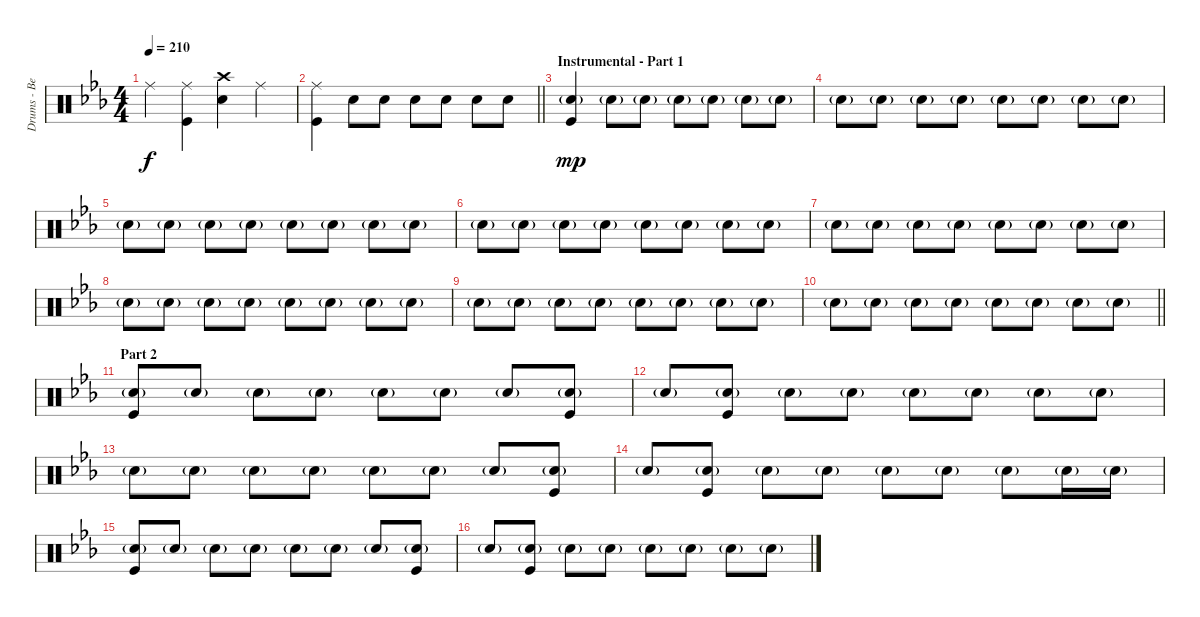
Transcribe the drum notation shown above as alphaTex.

\track ("Drums - Ben Johnston" "Drums - Be") {instrument percussion}
\staff {score}
\articulation defaults
\ts (4 4)
\tempo 210
\clef neutral
\ks cminor "Ride (middle)".4{dy f}
("Ride (middle)" "Kick (hit)").4 ("Crash high (hit)" "Snare (hit) 2").4 "Ride (middle)".4 |
\barLineRight lightlight
("Ride (middle)" "Kick (hit)").4 "Snare (hit) 2".8 "Snare (hit) 2".8 "Snare (hit) 2".8 "Snare (hit) 2".8 "Snare (hit) 2".8 "Snare (hit) 2".8 |
\section ("" "Instrumental - Part 1")
("Snare (hit) 2"{g} "Kick (hit)").4{dy mp volume 16} "Snare (hit) 2"{g}.8 "Snare (hit) 2"{g}.8 "Snare (hit) 2"{g}.8 "Snare (hit) 2"{g}.8 "Snare (hit) 2"{g}.8 "Snare (hit) 2"{g}.8 |
"Snare (hit) 2"{g}.8 "Snare (hit) 2"{g}.8 "Snare (hit) 2"{g}.8 "Snare (hit) 2"{g}.8 "Snare (hit) 2"{g}.8 "Snare (hit) 2"{g}.8 "Snare (hit) 2"{g}.8 "Snare (hit) 2"{g}.8 |
"Snare (hit) 2"{g}.8 "Snare (hit) 2"{g}.8 "Snare (hit) 2"{g}.8 "Snare (hit) 2"{g}.8 "Snare (hit) 2"{g}.8 "Snare (hit) 2"{g}.8 "Snare (hit) 2"{g}.8 "Snare (hit) 2"{g}.8 |
"Snare (hit) 2"{g}.8 "Snare (hit) 2"{g}.8 "Snare (hit) 2"{g}.8 "Snare (hit) 2"{g}.8 "Snare (hit) 2"{g}.8 "Snare (hit) 2"{g}.8 "Snare (hit) 2"{g}.8 "Snare (hit) 2"{g}.8 |
"Snare (hit) 2"{g}.8 "Snare (hit) 2"{g}.8 "Snare (hit) 2"{g}.8 "Snare (hit) 2"{g}.8 "Snare (hit) 2"{g}.8 "Snare (hit) 2"{g}.8 "Snare (hit) 2"{g}.8 "Snare (hit) 2"{g}.8 |
"Snare (hit) 2"{g}.8 "Snare (hit) 2"{g}.8 "Snare (hit) 2"{g}.8 "Snare (hit) 2"{g}.8 "Snare (hit) 2"{g}.8 "Snare (hit) 2"{g}.8 "Snare (hit) 2"{g}.8 "Snare (hit) 2"{g}.8 |
"Snare (hit) 2"{g}.8 "Snare (hit) 2"{g}.8 "Snare (hit) 2"{g}.8 "Snare (hit) 2"{g}.8 "Snare (hit) 2"{g}.8 "Snare (hit) 2"{g}.8 "Snare (hit) 2"{g}.8 "Snare (hit) 2"{g}.8 |
\barLineRight lightlight "Snare (hit) 2"{g}.8 "Snare (hit) 2"{g}.8 "Snare (hit) 2"{g}.8 "Snare (hit) 2"{g}.8 "Snare (hit) 2"{g}.8 "Snare (hit) 2"{g}.8 "Snare (hit) 2"{g}.8 "Snare (hit) 2"{g}.8
|
\section ("" "Part 2")
("Snare (hit) 2"{g} "Kick (hit)").8 "Snare (hit) 2"{g}.8 "Snare (hit) 2"{g}.8 "Snare (hit) 2"{g}.8 "Snare (hit) 2"{g}.8 "Snare (hit) 2"{g}.8 "Snare (hit) 2"{g}.8 ("Snare (hit) 2"{g} "Kick (hit)").8 |
"Snare (hit) 2"{g}.8 ("Snare (hit) 2"{g} "Kick (hit)").8 "Snare (hit) 2"{g}.8 "Snare (hit) 2"{g}.8 "Snare (hit) 2"{g}.8 "Snare (hit) 2"{g}.8 "Snare (hit) 2"{g}.8 "Snare (hit) 2"{g}.8 |
"Snare (hit) 2"{g}.8 "Snare (hit) 2"{g}.8 "Snare (hit) 2"{g}.8 "Snare (hit) 2"{g}.8 "Snare (hit) 2"{g}.8 "Snare (hit) 2"{g}.8 "Snare (hit) 2"{g}.8 ("Snare (hit) 2"{g} "Kick (hit)").8 |
"Snare (hit) 2"{g}.8 ("Snare (hit) 2"{g} "Kick (hit)").8 "Snare (hit) 2"{g}.8 "Snare (hit) 2"{g}.8 "Snare (hit) 2"{g}.8 "Snare (hit) 2"{g}.8 "Snare (hit) 2"{g}.8 "Snare (hit) 2"{g}.16 "Snare (hit) 2"{g}.16 |
("Snare (hit) 2"{g} "Kick (hit)").8 "Snare (hit) 2"{g}.8 "Snare (hit) 2"{g}.8 "Snare (hit) 2"{g}.8 "Snare (hit) 2"{g}.8 "Snare (hit) 2"{g}.8 "Snare (hit) 2"{g}.8 ("Snare (hit) 2"{g} "Kick (hit)").8 |
"Snare (hit) 2"{g}.8 ("Snare (hit) 2"{g} "Kick (hit)").8 "Snare (hit) 2"{g}.8 "Snare (hit) 2"{g}.8 "Snare (hit) 2"{g}.8 "Snare (hit) 2"{g}.8 "Snare (hit) 2"{g}.8 "Snare (hit) 2"{g}.8
